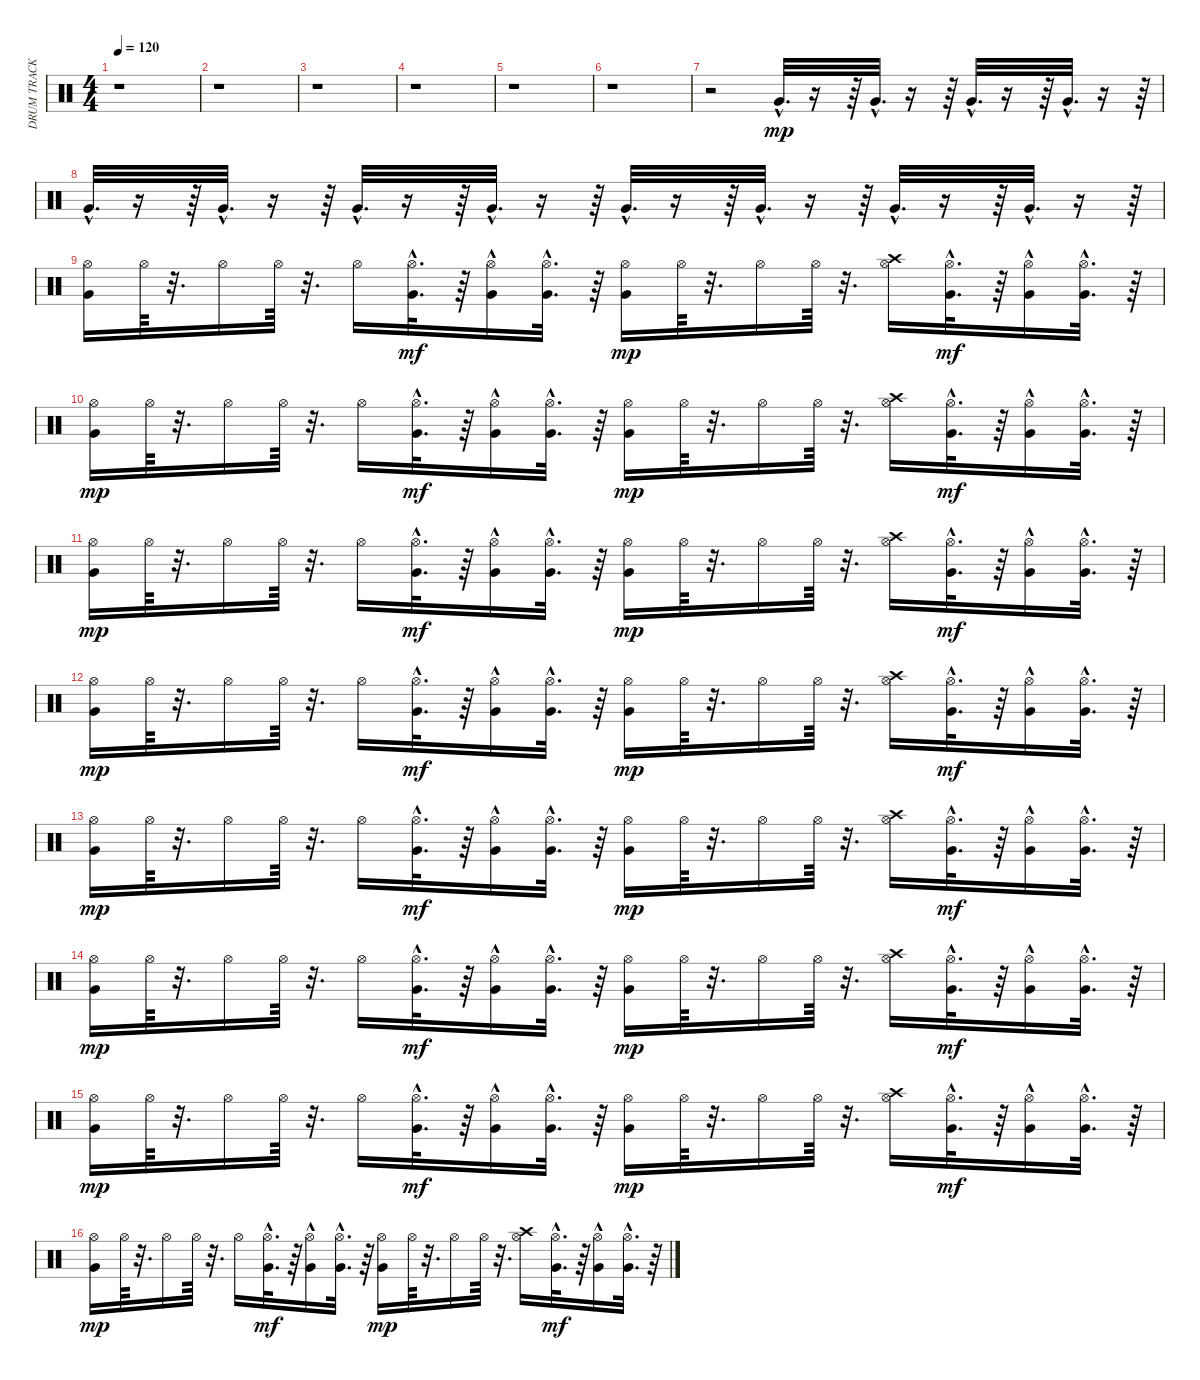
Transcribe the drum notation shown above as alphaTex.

\track ("DRUM TRACK          " "DRUM TRACK") {instrument percussion}
\staff {score}
\articulation defaults
\ts (4 4)
\tempo 120
\clef neutral
\ks c
r.1{dy mp} |
r.1 |
r.1 |
r.1 |
r.1 |
r.1 |
r.2 "Very Low Tom (hit)"{hac}.32{d} r.16 r.64 "Very Low Tom (hit)"{hac}.32{d} r.16 r.64 "Very Low Tom (hit)"{hac}.32{d} r.16 r.64 "Very Low Tom (hit)"{hac}.32{d} r.16 r.64 |
"Very Low Tom (hit)"{hac}.32{d} r.16 r.64 "Very Low Tom (hit)"{hac}.32{d} r.16 r.64 "Very Low Tom (hit)"{hac}.32{d} r.16 r.64 "Very Low Tom (hit)"{hac}.32{d} r.16 r.64 "Very Low Tom (hit)"{hac}.32{d} r.16 r.64 "Very Low Tom (hit)"{hac}.32{d} r.16 r.64 "Very Low Tom (hit)"{hac}.32{d} r.16 r.64 "Very Low Tom (hit)"{hac}.32{d} r.16 r.64 |
("Hi-Hat (open)" "Very Low Tom (hit)").16 "Hi-Hat (open)".64 r.32{d} "Hi-Hat (open)".16 "Hi-Hat (open)".64 r.32{d} "Hi-Hat (open)".16 ("Hi-Hat (open)" "Very Low Tom (hit)"{hac}).32{d dy mf} r.64 ("Hi-Hat (open)" "Very Low Tom (hit)"{hac}).16 ("Hi-Hat (open)" "Very Low Tom (hit)"{hac}).32{d} r.64 ("Very Low Tom (hit)" "Hi-Hat (open)").16{dy mp} "Hi-Hat (open)".64 r.32{d} "Hi-Hat (open)".16 "Hi-Hat (open)".64 r.32{d} ("Hi-Hat (open)" "Crash high (hit)").16 ("Hi-Hat (open)" "Very Low Tom (hit)"{hac}).32{d dy mf} r.64 ("Hi-Hat (open)" "Very Low Tom (hit)"{hac}).16 ("Hi-Hat (open)" "Very Low Tom (hit)"{hac}).32{d} r.64 |
("Hi-Hat (open)" "Very Low Tom (hit)").16{dy mp} "Hi-Hat (open)".64 r.32{d} "Hi-Hat (open)".16 "Hi-Hat (open)".64 r.32{d} "Hi-Hat (open)".16 ("Hi-Hat (open)" "Very Low Tom (hit)"{hac}).32{d dy mf} r.64 ("Hi-Hat (open)" "Very Low Tom (hit)"{hac}).16 ("Hi-Hat (open)" "Very Low Tom (hit)"{hac}).32{d} r.64 ("Very Low Tom (hit)" "Hi-Hat (open)").16{dy mp} "Hi-Hat (open)".64 r.32{d} "Hi-Hat (open)".16 "Hi-Hat (open)".64 r.32{d} ("Hi-Hat (open)" "Crash high (hit)").16 ("Hi-Hat (open)" "Very Low Tom (hit)"{hac}).32{d dy mf} r.64 ("Hi-Hat (open)" "Very Low Tom (hit)"{hac}).16 ("Hi-Hat (open)" "Very Low Tom (hit)"{hac}).32{d} r.64 |
("Hi-Hat (open)" "Very Low Tom (hit)").16{dy mp} "Hi-Hat (open)".64 r.32{d} "Hi-Hat (open)".16 "Hi-Hat (open)".64 r.32{d} "Hi-Hat (open)".16 ("Hi-Hat (open)" "Very Low Tom (hit)"{hac}).32{d dy mf} r.64 ("Hi-Hat (open)" "Very Low Tom (hit)"{hac}).16 ("Hi-Hat (open)" "Very Low Tom (hit)"{hac}).32{d} r.64 ("Very Low Tom (hit)" "Hi-Hat (open)").16{dy mp} "Hi-Hat (open)".64 r.32{d} "Hi-Hat (open)".16 "Hi-Hat (open)".64 r.32{d} ("Hi-Hat (open)" "Crash high (hit)").16 ("Hi-Hat (open)" "Very Low Tom (hit)"{hac}).32{d dy mf} r.64 ("Hi-Hat (open)" "Very Low Tom (hit)"{hac}).16 ("Hi-Hat (open)" "Very Low Tom (hit)"{hac}).32{d} r.64 |
("Hi-Hat (open)" "Very Low Tom (hit)").16{dy mp} "Hi-Hat (open)".64 r.32{d} "Hi-Hat (open)".16 "Hi-Hat (open)".64 r.32{d} "Hi-Hat (open)".16 ("Hi-Hat (open)" "Very Low Tom (hit)"{hac}).32{d dy mf} r.64 ("Hi-Hat (open)" "Very Low Tom (hit)"{hac}).16 ("Hi-Hat (open)" "Very Low Tom (hit)"{hac}).32{d} r.64 ("Very Low Tom (hit)" "Hi-Hat (open)").16{dy mp} "Hi-Hat (open)".64 r.32{d} "Hi-Hat (open)".16 "Hi-Hat (open)".64 r.32{d} ("Hi-Hat (open)" "Crash high (hit)").16 ("Hi-Hat (open)" "Very Low Tom (hit)"{hac}).32{d dy mf} r.64 ("Hi-Hat (open)" "Very Low Tom (hit)"{hac}).16 ("Hi-Hat (open)" "Very Low Tom (hit)"{hac}).32{d} r.64 |
("Hi-Hat (open)" "Very Low Tom (hit)").16{dy mp} "Hi-Hat (open)".64 r.32{d} "Hi-Hat (open)".16 "Hi-Hat (open)".64 r.32{d} "Hi-Hat (open)".16 ("Hi-Hat (open)" "Very Low Tom (hit)"{hac}).32{d dy mf} r.64 ("Hi-Hat (open)" "Very Low Tom (hit)"{hac}).16 ("Hi-Hat (open)" "Very Low Tom (hit)"{hac}).32{d} r.64 ("Very Low Tom (hit)" "Hi-Hat (open)").16{dy mp} "Hi-Hat (open)".64 r.32{d} "Hi-Hat (open)".16 "Hi-Hat (open)".64 r.32{d} ("Hi-Hat (open)" "Crash high (hit)").16 ("Hi-Hat (open)" "Very Low Tom (hit)"{hac}).32{d dy mf} r.64 ("Hi-Hat (open)" "Very Low Tom (hit)"{hac}).16 ("Hi-Hat (open)" "Very Low Tom (hit)"{hac}).32{d} r.64 |
("Hi-Hat (open)" "Very Low Tom (hit)").16{dy mp} "Hi-Hat (open)".64 r.32{d} "Hi-Hat (open)".16 "Hi-Hat (open)".64 r.32{d} "Hi-Hat (open)".16 ("Hi-Hat (open)" "Very Low Tom (hit)"{hac}).32{d dy mf} r.64 ("Hi-Hat (open)" "Very Low Tom (hit)"{hac}).16 ("Hi-Hat (open)" "Very Low Tom (hit)"{hac}).32{d} r.64 ("Very Low Tom (hit)" "Hi-Hat (open)").16{dy mp} "Hi-Hat (open)".64 r.32{d} "Hi-Hat (open)".16 "Hi-Hat (open)".64 r.32{d} ("Hi-Hat (open)" "Crash high (hit)").16 ("Hi-Hat (open)" "Very Low Tom (hit)"{hac}).32{d dy mf} r.64 ("Hi-Hat (open)" "Very Low Tom (hit)"{hac}).16 ("Hi-Hat (open)" "Very Low Tom (hit)"{hac}).32{d} r.64 |
("Hi-Hat (open)" "Very Low Tom (hit)").16{dy mp} "Hi-Hat (open)".64 r.32{d} "Hi-Hat (open)".16 "Hi-Hat (open)".64 r.32{d} "Hi-Hat (open)".16 ("Hi-Hat (open)" "Very Low Tom (hit)"{hac}).32{d dy mf} r.64 ("Hi-Hat (open)" "Very Low Tom (hit)"{hac}).16 ("Hi-Hat (open)" "Very Low Tom (hit)"{hac}).32{d} r.64 ("Very Low Tom (hit)" "Hi-Hat (open)").16{dy mp} "Hi-Hat (open)".64 r.32{d} "Hi-Hat (open)".16 "Hi-Hat (open)".64 r.32{d} ("Hi-Hat (open)" "Crash high (hit)").16 ("Hi-Hat (open)" "Very Low Tom (hit)"{hac}).32{d dy mf} r.64 ("Hi-Hat (open)" "Very Low Tom (hit)"{hac}).16 ("Hi-Hat (open)" "Very Low Tom (hit)"{hac}).32{d} r.64 |
("Hi-Hat (open)" "Very Low Tom (hit)").16{dy mp} "Hi-Hat (open)".64 r.32{d} "Hi-Hat (open)".16 "Hi-Hat (open)".64 r.32{d} "Hi-Hat (open)".16 ("Hi-Hat (open)" "Very Low Tom (hit)"{hac}).32{d dy mf} r.64 ("Hi-Hat (open)" "Very Low Tom (hit)"{hac}).16 ("Hi-Hat (open)" "Very Low Tom (hit)"{hac}).32{d} r.64 ("Very Low Tom (hit)" "Hi-Hat (open)").16{dy mp} "Hi-Hat (open)".64 r.32{d} "Hi-Hat (open)".16 "Hi-Hat (open)".64 r.32{d} ("Hi-Hat (open)" "Crash high (hit)").16 ("Hi-Hat (open)" "Very Low Tom (hit)"{hac}).32{d dy mf} r.64 ("Hi-Hat (open)" "Very Low Tom (hit)"{hac}).16 ("Hi-Hat (open)" "Very Low Tom (hit)"{hac}).32{d} r.64
